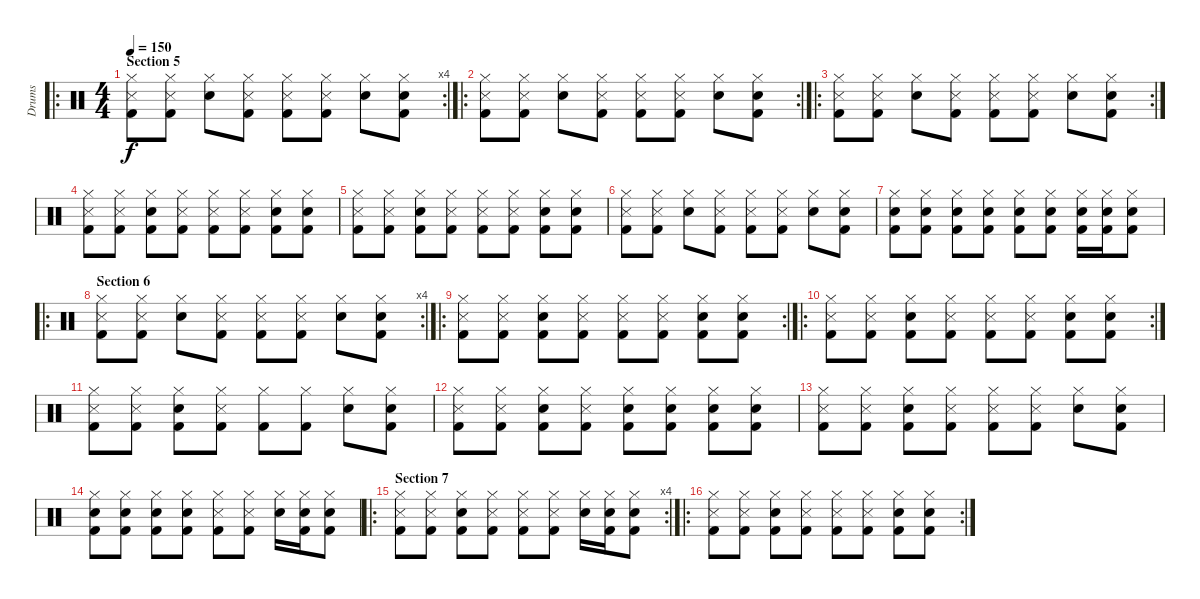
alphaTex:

\track ("Drums" "Drums") {instrument percussion}
\staff {score}
\articulation defaults
\ro
\rc 4
\ts (4 4)
\section ("" "Section 5")
\tempo 150
\clef neutral
\ks c
("Hi-Hat (closed)" "Snare (side stick) 3" "Kick (hit) 2").8{dy f} ("Hi-Hat (closed)" "Snare (side stick) 3" "Kick (hit) 2").8 ("Hi-Hat (closed)" "Electric Snare (hit)").8 ("Hi-Hat (closed)" "Snare (side stick) 3" "Kick (hit) 2").8 ("Hi-Hat (closed)" "Snare (side stick) 3" "Kick (hit) 2").8 ("Hi-Hat (closed)" "Snare (side stick) 3" "Kick (hit) 2").8 ("Hi-Hat (closed)" "Electric Snare (hit)").8 ("Hi-Hat (closed)" "Electric Snare (hit)" "Kick (hit) 2").8 |
\ro
\rc 2
("Hi-Hat (closed)" "Snare (side stick) 3" "Kick (hit) 2").8 ("Hi-Hat (closed)" "Snare (side stick) 3" "Kick (hit) 2").8 ("Hi-Hat (closed)" "Electric Snare (hit)").8 ("Hi-Hat (closed)" "Snare (side stick) 3" "Kick (hit) 2").8 ("Hi-Hat (closed)" "Snare (side stick) 3" "Kick (hit) 2").8 ("Hi-Hat (closed)" "Snare (side stick) 3" "Kick (hit) 2").8 ("Hi-Hat (closed)" "Electric Snare (hit)").8 ("Hi-Hat (closed)" "Electric Snare (hit)" "Kick (hit) 2").8 |
\ro
\rc 2
("Hi-Hat (closed)" "Snare (side stick) 3" "Kick (hit) 2").8 ("Hi-Hat (closed)" "Snare (side stick) 3" "Kick (hit) 2").8 ("Hi-Hat (closed)" "Electric Snare (hit)").8 ("Hi-Hat (closed)" "Snare (side stick) 3" "Kick (hit) 2").8 ("Hi-Hat (closed)" "Snare (side stick) 3" "Kick (hit) 2").8 ("Hi-Hat (closed)" "Snare (side stick) 3" "Kick (hit) 2").8 ("Hi-Hat (closed)" "Electric Snare (hit)").8 ("Hi-Hat (closed)" "Electric Snare (hit)" "Kick (hit) 2").8 |
("Hi-Hat (closed)" "Snare (side stick) 3" "Kick (hit) 2").8 ("Hi-Hat (closed)" "Snare (side stick) 3" "Kick (hit) 2").8 ("Hi-Hat (closed)" "Electric Snare (hit)" "Kick (hit) 2").8 ("Hi-Hat (closed)" "Snare (side stick) 3" "Kick (hit) 2").8 ("Hi-Hat (closed)" "Snare (side stick) 3" "Kick (hit) 2").8 ("Hi-Hat (closed)" "Snare (side stick) 3" "Kick (hit) 2").8 ("Hi-Hat (closed)" "Electric Snare (hit)" "Kick (hit) 2").8 ("Hi-Hat (closed)" "Electric Snare (hit)" "Kick (hit) 2").8 |
("Hi-Hat (closed)" "Snare (side stick) 3" "Kick (hit) 2").8 ("Hi-Hat (closed)" "Snare (side stick) 3" "Kick (hit) 2").8 ("Hi-Hat (closed)" "Electric Snare (hit)" "Kick (hit) 2").8 ("Hi-Hat (closed)" "Snare (side stick) 3" "Kick (hit) 2").8 ("Hi-Hat (closed)" "Snare (side stick) 3" "Kick (hit) 2").8 ("Hi-Hat (closed)" "Snare (side stick) 3" "Kick (hit) 2").8 ("Hi-Hat (closed)" "Electric Snare (hit)" "Kick (hit) 2").8 ("Hi-Hat (closed)" "Electric Snare (hit)" "Kick (hit) 2").8 |
("Hi-Hat (closed)" "Snare (side stick) 3" "Kick (hit) 2").8 ("Hi-Hat (closed)" "Snare (side stick) 3" "Kick (hit) 2").8 ("Hi-Hat (closed)" "Snare (hit) 2").8 ("Hi-Hat (closed)" "Snare (side stick) 3" "Kick (hit) 2").8 ("Hi-Hat (closed)" "Snare (side stick) 3" "Kick (hit) 2").8 ("Hi-Hat (closed)" "Snare (side stick) 3" "Kick (hit) 2").8 ("Hi-Hat (closed)" "Snare (hit) 2").8 ("Hi-Hat (closed)" "Snare (hit) 2" "Kick (hit) 2").8 |
("Hi-Hat (closed)" "Snare (hit) 2" "Kick (hit) 2").8 ("Hi-Hat (closed)" "Snare (hit) 2" "Kick (hit) 2").8 ("Hi-Hat (closed)" "Snare (hit) 2" "Kick (hit) 2").8 ("Hi-Hat (closed)" "Snare (hit) 2" "Kick (hit) 2").8 ("Hi-Hat (closed)" "Snare (hit) 2" "Kick (hit) 2").8 ("Hi-Hat (closed)" "Snare (hit) 2" "Kick (hit) 2").8 ("Hi-Hat (closed)" "Snare (hit) 2" "Kick (hit) 2").16 ("Hi-Hat (closed)" "Snare (hit) 2" "Kick (hit) 2").16 ("Hi-Hat (closed)" "Snare (hit) 2" "Kick (hit) 2").8 |
\ro
\rc 4
\section ("" "Section 6")
("Hi-Hat (closed)" "Snare (side stick) 3" "Kick (hit) 2").8 ("Hi-Hat (closed)" "Snare (side stick) 3" "Kick (hit) 2").8 ("Hi-Hat (closed)" "Snare (hit) 2").8 ("Hi-Hat (closed)" "Snare (side stick) 3" "Kick (hit) 2").8 ("Hi-Hat (closed)" "Snare (side stick) 3" "Kick (hit) 2").8 ("Hi-Hat (closed)" "Snare (side stick) 3" "Kick (hit) 2").8 ("Hi-Hat (closed)" "Snare (hit) 2").8 ("Hi-Hat (closed)" "Snare (hit) 2" "Kick (hit) 2").8 |
\ro
\rc 2
("Hi-Hat (closed)" "Snare (side stick) 3" "Kick (hit) 2").8 ("Hi-Hat (closed)" "Snare (side stick) 3" "Kick (hit) 2").8 ("Hi-Hat (closed)" "Snare (hit) 2" "Kick (hit) 2").8 ("Hi-Hat (closed)" "Snare (side stick) 3" "Kick (hit) 2").8 ("Hi-Hat (closed)" "Snare (side stick) 3" "Kick (hit) 2").8 ("Hi-Hat (closed)" "Snare (side stick) 3" "Kick (hit) 2").8 ("Hi-Hat (closed)" "Snare (hit) 2" "Kick (hit) 2").8 ("Hi-Hat (closed)" "Snare (hit) 2" "Kick (hit) 2").8 |
\ro
\rc 2
("Hi-Hat (closed)" "Snare (side stick) 3" "Kick (hit) 2").8 ("Hi-Hat (closed)" "Snare (side stick) 3" "Kick (hit) 2").8 ("Hi-Hat (closed)" "Snare (hit) 2" "Kick (hit) 2").8 ("Hi-Hat (closed)" "Snare (side stick) 3" "Kick (hit) 2").8 ("Hi-Hat (closed)" "Snare (side stick) 3" "Kick (hit) 2").8 ("Hi-Hat (closed)" "Snare (side stick) 3" "Kick (hit) 2").8 ("Hi-Hat (closed)" "Snare (hit) 2" "Kick (hit) 2").8 ("Hi-Hat (closed)" "Snare (hit) 2" "Kick (hit) 2").8 |
("Hi-Hat (closed)" "Snare (side stick) 3" "Kick (hit) 2").8 ("Hi-Hat (closed)" "Snare (side stick) 3" "Kick (hit) 2").8 ("Hi-Hat (closed)" "Snare (hit) 2" "Kick (hit) 2").8 ("Hi-Hat (closed)" "Snare (side stick) 3" "Kick (hit) 2").8 ("Hi-Hat (closed)" "Kick (hit) 2").8 ("Hi-Hat (closed)" "Kick (hit) 2").8 ("Hi-Hat (closed)" "Snare (hit) 2").8 ("Hi-Hat (closed)" "Snare (hit) 2" "Kick (hit) 2").8 |
("Hi-Hat (closed)" "Snare (side stick) 3" "Kick (hit) 2").8 ("Hi-Hat (closed)" "Snare (side stick) 3" "Kick (hit) 2").8 ("Hi-Hat (closed)" "Snare (hit) 2" "Kick (hit) 2").8 ("Hi-Hat (closed)" "Snare (side stick) 3" "Kick (hit) 2").8 ("Hi-Hat (closed)" "Snare (hit) 2" "Kick (hit) 2").8 ("Hi-Hat (closed)" "Snare (hit) 2" "Kick (hit) 2").8 ("Hi-Hat (closed)" "Snare (hit) 2" "Kick (hit) 2").8 ("Hi-Hat (closed)" "Snare (hit) 2" "Kick (hit) 2").8 |
("Hi-Hat (closed)" "Snare (side stick) 3" "Kick (hit) 2").8 ("Hi-Hat (closed)" "Snare (side stick) 3" "Kick (hit) 2").8 ("Hi-Hat (closed)" "Snare (hit) 2" "Kick (hit) 2").8 ("Hi-Hat (closed)" "Snare (side stick) 3" "Kick (hit) 2").8 ("Hi-Hat (closed)" "Snare (side stick) 3" "Kick (hit) 2").8 ("Hi-Hat (closed)" "Snare (side stick) 3" "Kick (hit) 2").8 ("Hi-Hat (closed)" "Snare (hit) 2").8 ("Hi-Hat (closed)" "Snare (hit) 2" "Kick (hit) 2").8 |
("Hi-Hat (closed)" "Snare (hit) 2" "Kick (hit) 2").8 ("Hi-Hat (closed)" "Snare (hit) 2" "Kick (hit) 2").8 ("Hi-Hat (closed)" "Snare (hit) 2" "Kick (hit) 2").8 ("Hi-Hat (closed)" "Snare (hit) 2" "Kick (hit) 2").8 ("Hi-Hat (closed)" "Snare (side stick) 3" "Kick (hit) 2").8 ("Hi-Hat (closed)" "Snare (side stick) 3" "Kick (hit) 2").8 ("Hi-Hat (closed)" "Snare (hit) 2").16 ("Hi-Hat (closed)" "Snare (hit) 2" "Kick (hit) 2").16 ("Hi-Hat (closed)" "Snare (hit) 2" "Kick (hit) 2").8 |
\ro
\rc 4
\section ("" "Section 7")
("Hi-Hat (closed)" "Snare (side stick) 3" "Kick (hit) 2").8 ("Hi-Hat (closed)" "Snare (side stick) 3" "Kick (hit) 2").8 ("Hi-Hat (closed)" "Snare (hit) 2" "Kick (hit) 2").8 ("Hi-Hat (closed)" "Snare (side stick) 3" "Kick (hit) 2").8 ("Hi-Hat (closed)" "Snare (side stick) 3" "Kick (hit) 2").8 ("Hi-Hat (closed)" "Snare (side stick) 3" "Kick (hit) 2").8 ("Hi-Hat (closed)" "Snare (hit) 2").16 ("Hi-Hat (closed)" "Snare (hit) 2" "Kick (hit) 2").16 ("Hi-Hat (closed)" "Snare (hit) 2" "Kick (hit) 2").8 |
\ro
\rc 2
("Hi-Hat (closed)" "Snare (side stick) 3" "Kick (hit) 2").8 ("Hi-Hat (closed)" "Snare (side stick) 3" "Kick (hit) 2").8 ("Hi-Hat (closed)" "Snare (hit) 2" "Kick (hit) 2").8 ("Hi-Hat (closed)" "Snare (side stick) 3" "Kick (hit) 2").8 ("Hi-Hat (closed)" "Snare (side stick) 3" "Kick (hit) 2").8 ("Hi-Hat (closed)" "Snare (side stick) 3" "Kick (hit) 2").8 ("Hi-Hat (closed)" "Snare (hit) 2" "Kick (hit) 2").8 ("Hi-Hat (closed)" "Snare (hit) 2" "Kick (hit) 2").8
